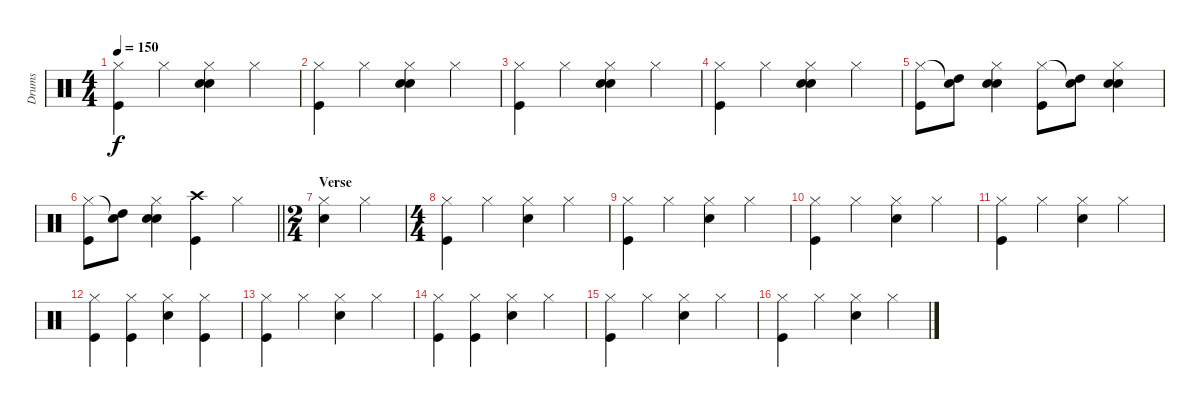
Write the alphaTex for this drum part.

\track ("Drums" "Drums") {instrument percussion}
\staff {score}
\articulation defaults
\ts (4 4)
\tempo 150
\clef neutral
\ks c
("Hi-Hat (closed)" "Kick (hit)").4{dy f} "Hi-Hat (closed)".4 ("Hi-Hat (closed)" "Hand Clap (hit)" "Snare (hit) 2").4 "Hi-Hat (closed)".4 |
("Hi-Hat (closed)" "Kick (hit)").4 "Hi-Hat (closed)".4 ("Hi-Hat (closed)" "Hand Clap (hit)" "Snare (hit) 2").4 "Hi-Hat (closed)".4 |
("Hi-Hat (closed)" "Kick (hit)").4 "Hi-Hat (closed)".4 ("Hi-Hat (closed)" "Hand Clap (hit)" "Snare (hit) 2").4 "Hi-Hat (closed)".4 |
("Hi-Hat (closed)" "Kick (hit)").4 "Hi-Hat (closed)".4 ("Hi-Hat (closed)" "Hand Clap (hit)" "Snare (hit) 2").4 "Hi-Hat (closed)".4 |
("Hi-Hat (closed)" "Kick (hit)").8 ("Snare (hit)"{t} "High Tom (hit)").8 ("Hi-Hat (closed)" "Hand Clap (hit)" "Snare (hit) 2").4 ("Hi-Hat (closed)" "Kick (hit)").8 ("Snare (hit)"{t} "High Tom (hit)").8 ("Hi-Hat (closed)" "Hand Clap (hit)" "Snare (hit) 2").4 |
\barLineRight lightlight
("Hi-Hat (closed)" "Kick (hit)").8 ("Snare (hit)"{t} "High Tom (hit)").8 ("Hi-Hat (closed)" "Hand Clap (hit)" "Snare (hit) 2").4 ("Crash high (hit)" "Kick (hit)").4 "Hi-Hat (closed)".4 |
\ts (2 4)
\section ("" "Verse")
("Hi-Hat (closed)" "Snare (hit) 2").4 "Hi-Hat (closed)".4 |
\ts (4 4)
("Hi-Hat (closed)" "Kick (hit)").4 "Hi-Hat (closed)".4 ("Hi-Hat (closed)" "Snare (hit) 2").4 "Hi-Hat (closed)".4 |
("Hi-Hat (closed)" "Kick (hit)").4 "Hi-Hat (closed)".4 ("Hi-Hat (closed)" "Snare (hit) 2").4 "Hi-Hat (closed)".4 |
("Hi-Hat (closed)" "Kick (hit)").4 "Hi-Hat (closed)".4 ("Hi-Hat (closed)" "Snare (hit) 2").4 "Hi-Hat (closed)".4 |
("Hi-Hat (closed)" "Kick (hit)").4 "Hi-Hat (closed)".4 ("Hi-Hat (closed)" "Snare (hit) 2").4 "Hi-Hat (closed)".4 |
("Hi-Hat (closed)" "Kick (hit)").4 ("Hi-Hat (closed)" "Kick (hit)").4 ("Hi-Hat (closed)" "Snare (hit) 2").4 ("Hi-Hat (closed)" "Kick (hit)").4 |
("Hi-Hat (closed)" "Kick (hit)").4 "Hi-Hat (closed)".4 ("Hi-Hat (closed)" "Snare (hit) 2").4 "Hi-Hat (closed)".4 |
("Hi-Hat (closed)" "Kick (hit)").4 ("Hi-Hat (closed)" "Kick (hit)").4 ("Hi-Hat (closed)" "Snare (hit) 2").4 "Hi-Hat (closed)".4 |
("Hi-Hat (closed)" "Kick (hit)").4 "Hi-Hat (closed)".4 ("Hi-Hat (closed)" "Snare (hit) 2").4 "Hi-Hat (closed)".4 |
("Hi-Hat (closed)" "Kick (hit)").4 "Hi-Hat (closed)".4 ("Hi-Hat (closed)" "Snare (hit) 2").4 "Hi-Hat (closed)".4
